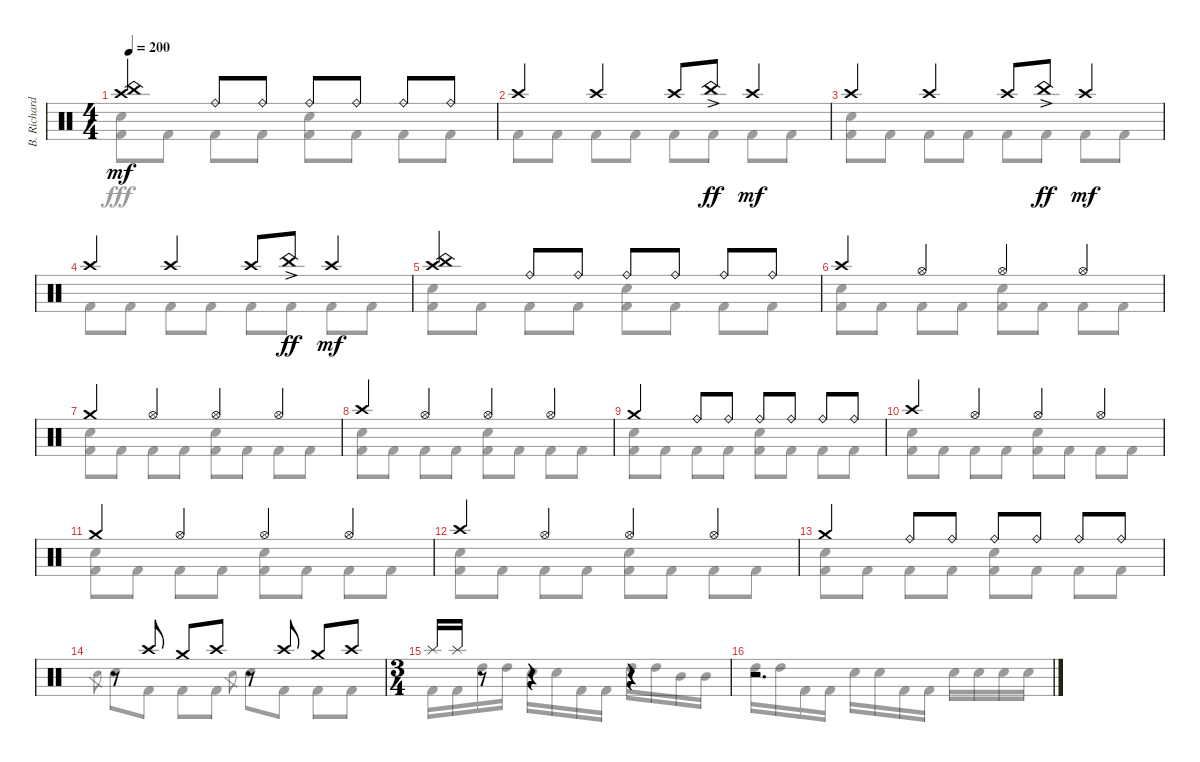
\track ("B. Richardson Drums" "B. Richard") {instrument percussion}
\staff {score}
\articulation defaults
\voice
\ts (4 4)
\tempo 200
\clef neutral
\ks c
("Crash high (hit)" "China (hit)").4{dy mf} "Ride (bell)".8 "Ride (bell)".8 "Ride (bell)".8 "Ride (bell)".8 "Ride (bell)".8 "Ride (bell)".8 |
"Crash high (hit)".4 "Crash high (hit)".4 "Crash high (hit)".8 "China (hit)"{ac}.8{dy ff} "Crash high (hit)".4{dy mf} |
"Crash high (hit)".4 "Crash high (hit)".4 "Crash high (hit)".8 "China (hit)"{ac}.8{dy ff} "Crash high (hit)".4{dy mf} |
"Crash high (hit)".4 "Crash high (hit)".4 "Crash high (hit)".8 "China (hit)"{ac}.8{dy ff} "Crash high (hit)".4{dy mf} |
("Crash high (hit)" "China (hit)").4 "Ride (bell)".8 "Ride (bell)".8 "Ride (bell)".8 "Ride (bell)".8 "Ride (bell)".8 "Ride (bell)".8 |
"Crash high (hit)".4 "Hi-Hat (open)".4 "Hi-Hat (open)".4 "Hi-Hat (open)".4 |
"Crash medium (hit)".4 "Hi-Hat (open)".4 "Hi-Hat (open)".4 "Hi-Hat (open)".4 |
"Crash high (hit)".4 "Hi-Hat (open)".4 "Hi-Hat (open)".4 "Hi-Hat (open)".4 |
"Crash medium (hit)".4 "Ride (bell)".8 "Ride (bell)".8 "Ride (bell)".8 "Ride (bell)".8 "Ride (bell)".8 "Ride (bell)".8 |
"Crash high (hit)".4 "Hi-Hat (open)".4 "Hi-Hat (open)".4 "Hi-Hat (open)".4 |
"Crash medium (hit)".4 "Hi-Hat (open)".4 "Hi-Hat (open)".4 "Hi-Hat (open)".4 |
"Crash high (hit)".4 "Hi-Hat (open)".4 "Hi-Hat (open)".4 "Hi-Hat (open)".4 |
"Crash medium (hit)".4 "Ride (bell)".8 "Ride (bell)".8 "Ride (bell)".8 "Ride (bell)".8 "Ride (bell)".8 "Ride (bell)".8 |
r.8 "Crash high (hit)".8 "Crash medium (hit)".8 "Crash high (hit)".8 r.8 "Crash high (hit)".8 "Crash medium (hit)".8 "Crash high (hit)".8 |
\ts (3 4)
"Splash (hit)".16 "Splash (hit)".16 r.8 r.4 r.4 |
r.2{d}
\voice
\clef neutral
\ottava regular
\simile none
\ks c
("Electric Snare (hit)" "Kick (hit) 2").8{dy fff} "Kick (hit) 2".8 "Kick (hit) 2".8 "Kick (hit) 2".8 ("Electric Snare (hit)" "Kick (hit) 2").8 "Kick (hit) 2".8 "Kick (hit) 2".8 "Kick (hit) 2".8 |
"Kick (hit) 2".8 "Kick (hit) 2".8 "Kick (hit) 2".8 "Kick (hit) 2".8 "Kick (hit) 2".8 "Kick (hit) 2".8 "Kick (hit) 2".8 "Kick (hit) 2".8 |
("Electric Snare (hit)" "Kick (hit) 2").8 "Kick (hit) 2".8 "Kick (hit) 2".8 "Kick (hit) 2".8 "Kick (hit) 2".8 "Kick (hit) 2".8 "Kick (hit) 2".8 "Kick (hit) 2".8 |
"Kick (hit) 2".8 "Kick (hit) 2".8 "Kick (hit) 2".8 "Kick (hit) 2".8 "Kick (hit) 2".8 "Kick (hit) 2".8 "Kick (hit) 2".8 "Kick (hit) 2".8 |
("Electric Snare (hit)" "Kick (hit) 2").8 "Kick (hit) 2".8 "Kick (hit) 2".8 "Kick (hit) 2".8 ("Electric Snare (hit)" "Kick (hit) 2").8 "Kick (hit) 2".8 "Kick (hit) 2".8 "Kick (hit) 2".8 |
("Electric Snare (hit)" "Kick (hit) 2").8 "Kick (hit) 2".8 "Kick (hit) 2".8 "Kick (hit) 2".8 ("Electric Snare (hit)" "Kick (hit) 2").8 "Kick (hit) 2".8 "Kick (hit) 2".8 "Kick (hit) 2".8 |
("Electric Snare (hit)" "Kick (hit) 2").8 "Kick (hit) 2".8 "Kick (hit) 2".8 "Kick (hit) 2".8 ("Electric Snare (hit)" "Kick (hit) 2").8 "Kick (hit) 2".8 "Kick (hit) 2".8 "Kick (hit) 2".8 |
("Electric Snare (hit)" "Kick (hit) 2").8 "Kick (hit) 2".8 "Kick (hit) 2".8 "Kick (hit) 2".8 ("Electric Snare (hit)" "Kick (hit) 2").8 "Kick (hit) 2".8 "Kick (hit) 2".8 "Kick (hit) 2".8 |
("Electric Snare (hit)" "Kick (hit) 2").8 "Kick (hit) 2".8 "Kick (hit) 2".8 "Kick (hit) 2".8 ("Electric Snare (hit)" "Kick (hit) 2").8 "Kick (hit) 2".8 "Kick (hit) 2".8 "Kick (hit) 2".8 |
("Electric Snare (hit)" "Kick (hit) 2").8 "Kick (hit) 2".8 "Kick (hit) 2".8 "Kick (hit) 2".8 ("Electric Snare (hit)" "Kick (hit) 2").8 "Kick (hit) 2".8 "Kick (hit) 2".8 "Kick (hit) 2".8 |
("Electric Snare (hit)" "Kick (hit) 2").8 "Kick (hit) 2".8 "Kick (hit) 2".8 "Kick (hit) 2".8 ("Electric Snare (hit)" "Kick (hit) 2").8 "Kick (hit) 2".8 "Kick (hit) 2".8 "Kick (hit) 2".8 |
("Electric Snare (hit)" "Kick (hit) 2").8 "Kick (hit) 2".8 "Kick (hit) 2".8 "Kick (hit) 2".8 ("Electric Snare (hit)" "Kick (hit) 2").8 "Kick (hit) 2".8 "Kick (hit) 2".8 "Kick (hit) 2".8 |
("Electric Snare (hit)" "Kick (hit) 2").8 "Kick (hit) 2".8 "Kick (hit) 2".8 "Kick (hit) 2".8 ("Electric Snare (hit)" "Kick (hit) 2").8 "Kick (hit) 2".8 "Kick (hit) 2".8 "Kick (hit) 2".8 |
"Electric Snare (hit)".8{gr} "Electric Snare (hit)".8 "Kick (hit) 2".8 "Kick (hit) 2".8 "Kick (hit) 2".8 "Electric Snare (hit)".8{gr} "Electric Snare (hit)".8 "Kick (hit) 2".8 "Kick (hit) 2".8 "Kick (hit) 2".8 |
"Kick (hit) 2".16 "Kick (hit) 2".16 "High Tom (hit)".16 "High Tom (hit)".16 "Electric Snare (hit)".16 "Electric Snare (hit)".16 "Kick (hit) 2".16 "Kick (hit) 2".16 "High Tom (hit)".16 "High Tom (hit)".16 "Mid Tom (hit)".16 "Mid Tom (hit)".16 |
"High Tom (hit)".16 "High Tom (hit)".16 "Kick (hit) 2".16 "Kick (hit) 2".16 "Electric Snare (hit)".16 "Electric Snare (hit)".16 "Kick (hit) 2".16 "Kick (hit) 2".16 "Electric Snare (hit)".16 "Electric Snare (hit)".16 "Electric Snare (hit)".16 "Electric Snare (hit)".16
